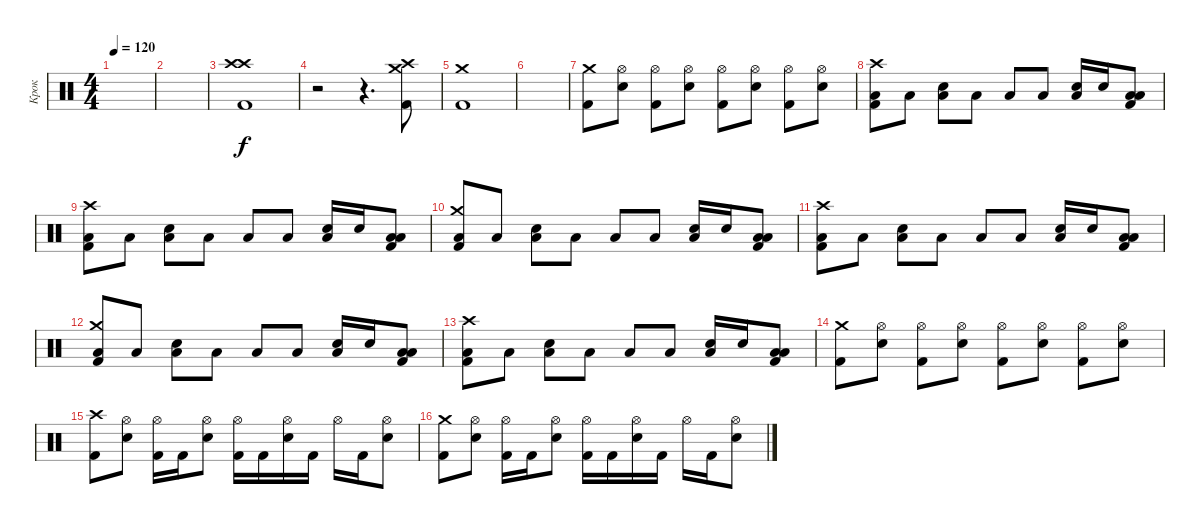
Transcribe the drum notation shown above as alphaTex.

\track ("Крок" "Крок") {instrument percussion}
\staff {score}
\articulation defaults
\ts (4 4)
\tempo 120
\clef neutral
\ks c
|
|
("Crash high (hit)" "Crash high (hit)" "Kick (hit) 2").1 |
r.2 r.4{d} ("Crash high (hit)" "Crash medium (hit)" "Kick (hit) 2").8 |
("Crash medium (hit)" "Kick (hit) 2").1 |
|
("Crash medium (hit)" "Kick (hit) 2").8 ("Hi-Hat (open)" "Electric Snare (hit)").8 ("Hi-Hat (open)" "Kick (hit) 2").8 ("Hi-Hat (open)" "Electric Snare (hit)").8 ("Hi-Hat (open)" "Kick (hit) 2").8 ("Hi-Hat (open)" "Electric Snare (hit)").8 ("Hi-Hat (open)" "Kick (hit) 2").8 ("Hi-Hat (open)" "Electric Snare (hit)").8 |
("Crash high (hit)" "Low Floor Tom (hit)" "Kick (hit) 2").8 "Low Floor Tom (hit)".8 ("Electric Snare (hit)" "Low Floor Tom (hit)").8 "Low Floor Tom (hit)".8 "Low Floor Tom (hit)".8 "Low Floor Tom (hit)".8 ("Electric Snare (hit)" "Low Floor Tom (hit)").16 "Electric Snare (hit)".16 ("Low Tom (hit)" "Low Floor Tom (hit)" "Kick (hit) 2").8 |
("Crash high (hit)" "Low Floor Tom (hit)" "Kick (hit) 2").8 "Low Floor Tom (hit)".8 ("Electric Snare (hit)" "Low Floor Tom (hit)").8 "Low Floor Tom (hit)".8 "Low Floor Tom (hit)".8 "Low Floor Tom (hit)".8 ("Electric Snare (hit)" "Low Floor Tom (hit)").16 "Electric Snare (hit)".16 ("Low Tom (hit)" "Low Floor Tom (hit)" "Kick (hit) 2").8 |
("Crash medium (hit)" "Low Floor Tom (hit)" "Kick (hit) 2").8 "Low Floor Tom (hit)".8 ("Electric Snare (hit)" "Low Floor Tom (hit)").8 "Low Floor Tom (hit)".8 "Low Floor Tom (hit)".8 "Low Floor Tom (hit)".8 ("Electric Snare (hit)" "Low Floor Tom (hit)").16 "Electric Snare (hit)".16 ("Low Tom (hit)" "Low Floor Tom (hit)" "Kick (hit) 2").8 |
("Crash high (hit)" "Low Floor Tom (hit)" "Kick (hit) 2").8 "Low Floor Tom (hit)".8 ("Electric Snare (hit)" "Low Floor Tom (hit)").8 "Low Floor Tom (hit)".8 "Low Floor Tom (hit)".8 "Low Floor Tom (hit)".8 ("Electric Snare (hit)" "Low Floor Tom (hit)").16 "Electric Snare (hit)".16 ("Low Tom (hit)" "Low Floor Tom (hit)" "Kick (hit) 2").8 |
("Crash medium (hit)" "Low Floor Tom (hit)" "Kick (hit) 2").8 "Low Floor Tom (hit)".8 ("Electric Snare (hit)" "Low Floor Tom (hit)").8 "Low Floor Tom (hit)".8 "Low Floor Tom (hit)".8 "Low Floor Tom (hit)".8 ("Electric Snare (hit)" "Low Floor Tom (hit)").16 "Electric Snare (hit)".16 ("Low Tom (hit)" "Low Floor Tom (hit)" "Kick (hit) 2").8 |
("Crash high (hit)" "Low Floor Tom (hit)" "Kick (hit) 2").8 "Low Floor Tom (hit)".8 ("Electric Snare (hit)" "Low Floor Tom (hit)").8 "Low Floor Tom (hit)".8 "Low Floor Tom (hit)".8 "Low Floor Tom (hit)".8 ("Electric Snare (hit)" "Low Floor Tom (hit)").16 "Electric Snare (hit)".16 ("Low Tom (hit)" "Low Floor Tom (hit)" "Kick (hit) 2").8 |
("Crash medium (hit)" "Kick (hit) 2").8 ("Hi-Hat (open)" "Electric Snare (hit)").8 ("Hi-Hat (open)" "Kick (hit) 2").8 ("Hi-Hat (open)" "Electric Snare (hit)").8 ("Hi-Hat (open)" "Kick (hit) 2").8 ("Hi-Hat (open)" "Electric Snare (hit)").8 ("Hi-Hat (open)" "Kick (hit) 2").8 ("Hi-Hat (open)" "Electric Snare (hit)").8 |
("Crash high (hit)" "Kick (hit) 2").8 ("Hi-Hat (open)" "Electric Snare (hit)").8 ("Hi-Hat (open)" "Kick (hit) 2").16 "Kick (hit) 2".16 ("Hi-Hat (open)" "Electric Snare (hit)").8 ("Hi-Hat (open)" "Kick (hit) 2").16 "Kick (hit) 2".16 ("Hi-Hat (open)" "Electric Snare (hit)").16 "Kick (hit) 2".16 "Hi-Hat (open)".16 "Kick (hit) 2".16 ("Hi-Hat (open)" "Electric Snare (hit)").8 |
("Crash medium (hit)" "Kick (hit) 2").8 ("Hi-Hat (open)" "Electric Snare (hit)").8 ("Hi-Hat (open)" "Kick (hit) 2").16 "Kick (hit) 2".16 ("Hi-Hat (open)" "Electric Snare (hit)").8 ("Hi-Hat (open)" "Kick (hit) 2").16 "Kick (hit) 2".16 ("Hi-Hat (open)" "Electric Snare (hit)").16 "Kick (hit) 2".16 "Hi-Hat (open)".16 "Kick (hit) 2".16 ("Hi-Hat (open)" "Electric Snare (hit)").8
